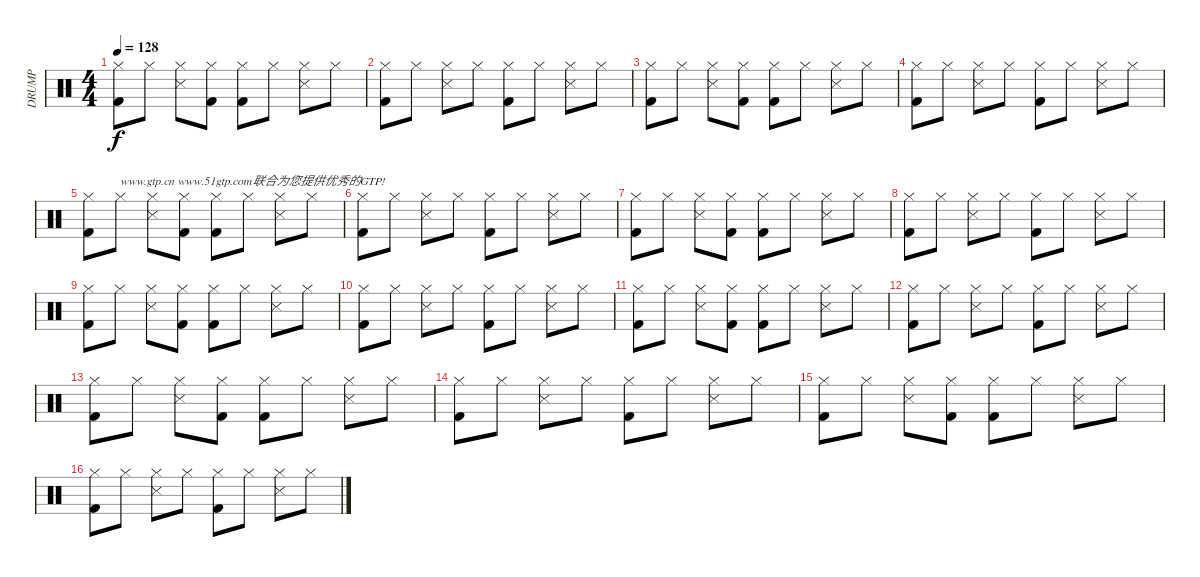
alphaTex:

\track ("DRUMP" "DRUMP") {instrument percussion}
\staff {score}
\articulation defaults
\ts (4 4)
\tempo 128
\clef neutral
\ks c
("Hi-Hat (closed)" "Kick (hit) 2").8{dy f} "Hi-Hat (closed)".8 ("Hi-Hat (closed)" "Snare (side stick) 3").8 ("Hi-Hat (closed)" "Kick (hit) 2").8 ("Hi-Hat (closed)" "Kick (hit) 2").8 "Hi-Hat (closed)".8 ("Hi-Hat (closed)" "Snare (side stick) 3").8 "Hi-Hat (closed)".8 |
("Hi-Hat (closed)" "Kick (hit) 2").8 "Hi-Hat (closed)".8 ("Hi-Hat (closed)" "Snare (side stick) 3").8 "Hi-Hat (closed)".8 ("Hi-Hat (closed)" "Kick (hit) 2").8 "Hi-Hat (closed)".8 ("Hi-Hat (closed)" "Snare (side stick) 3").8 "Hi-Hat (closed)".8 |
("Hi-Hat (closed)" "Kick (hit) 2").8 "Hi-Hat (closed)".8 ("Hi-Hat (closed)" "Snare (side stick) 3").8 ("Hi-Hat (closed)" "Kick (hit) 2").8 ("Hi-Hat (closed)" "Kick (hit) 2").8 "Hi-Hat (closed)".8 ("Hi-Hat (closed)" "Snare (side stick) 3").8 "Hi-Hat (closed)".8 |
("Hi-Hat (closed)" "Kick (hit) 2").8 "Hi-Hat (closed)".8 ("Hi-Hat (closed)" "Snare (side stick) 3").8 "Hi-Hat (closed)".8 ("Hi-Hat (closed)" "Kick (hit) 2").8 "Hi-Hat (closed)".8 ("Hi-Hat (closed)" "Snare (side stick) 3").8 "Hi-Hat (closed)".8 |
("Hi-Hat (closed)" "Kick (hit) 2").8 "Hi-Hat (closed)".8{txt "www.gtp.cn www.51gtp.com联合为您提供优秀的GTP!"} ("Hi-Hat (closed)" "Snare (side stick) 3").8 ("Hi-Hat (closed)" "Kick (hit) 2").8 ("Hi-Hat (closed)" "Kick (hit) 2").8 "Hi-Hat (closed)".8 ("Hi-Hat (closed)" "Snare (side stick) 3").8 "Hi-Hat (closed)".8 |
("Hi-Hat (closed)" "Kick (hit) 2").8 "Hi-Hat (closed)".8 ("Hi-Hat (closed)" "Snare (side stick) 3").8 "Hi-Hat (closed)".8 ("Hi-Hat (closed)" "Kick (hit) 2").8 "Hi-Hat (closed)".8 ("Hi-Hat (closed)" "Snare (side stick) 3").8 "Hi-Hat (closed)".8 |
("Hi-Hat (closed)" "Kick (hit) 2").8 "Hi-Hat (closed)".8 ("Hi-Hat (closed)" "Snare (side stick) 3").8 ("Hi-Hat (closed)" "Kick (hit) 2").8 ("Hi-Hat (closed)" "Kick (hit) 2").8 "Hi-Hat (closed)".8 ("Hi-Hat (closed)" "Snare (side stick) 3").8 "Hi-Hat (closed)".8 |
("Hi-Hat (closed)" "Kick (hit) 2").8 "Hi-Hat (closed)".8 ("Hi-Hat (closed)" "Snare (side stick) 3").8 "Hi-Hat (closed)".8 ("Hi-Hat (closed)" "Kick (hit) 2").8 "Hi-Hat (closed)".8 ("Hi-Hat (closed)" "Snare (side stick) 3").8 "Hi-Hat (closed)".8 |
("Hi-Hat (closed)" "Kick (hit) 2").8 "Hi-Hat (closed)".8 ("Hi-Hat (closed)" "Snare (side stick) 3").8 ("Hi-Hat (closed)" "Kick (hit) 2").8 ("Hi-Hat (closed)" "Kick (hit) 2").8 "Hi-Hat (closed)".8 ("Hi-Hat (closed)" "Snare (side stick) 3").8 "Hi-Hat (closed)".8 |
("Hi-Hat (closed)" "Kick (hit) 2").8 "Hi-Hat (closed)".8 ("Hi-Hat (closed)" "Snare (side stick) 3").8 "Hi-Hat (closed)".8 ("Hi-Hat (closed)" "Kick (hit) 2").8 "Hi-Hat (closed)".8 ("Hi-Hat (closed)" "Snare (side stick) 3").8 "Hi-Hat (closed)".8 |
("Hi-Hat (closed)" "Kick (hit) 2").8 "Hi-Hat (closed)".8 ("Hi-Hat (closed)" "Snare (side stick) 3").8 ("Hi-Hat (closed)" "Kick (hit) 2").8 ("Hi-Hat (closed)" "Kick (hit) 2").8 "Hi-Hat (closed)".8 ("Hi-Hat (closed)" "Snare (side stick) 3").8 "Hi-Hat (closed)".8 |
("Hi-Hat (closed)" "Kick (hit) 2").8 "Hi-Hat (closed)".8 ("Hi-Hat (closed)" "Snare (side stick) 3").8 "Hi-Hat (closed)".8 ("Hi-Hat (closed)" "Kick (hit) 2").8 "Hi-Hat (closed)".8 ("Hi-Hat (closed)" "Snare (side stick) 3").8 "Hi-Hat (closed)".8 |
("Hi-Hat (closed)" "Kick (hit) 2").8 "Hi-Hat (closed)".8 ("Hi-Hat (closed)" "Snare (side stick) 3").8 ("Hi-Hat (closed)" "Kick (hit) 2").8 ("Hi-Hat (closed)" "Kick (hit) 2").8 "Hi-Hat (closed)".8 ("Hi-Hat (closed)" "Snare (side stick) 3").8 "Hi-Hat (closed)".8 |
("Hi-Hat (closed)" "Kick (hit) 2").8 "Hi-Hat (closed)".8 ("Hi-Hat (closed)" "Snare (side stick) 3").8 "Hi-Hat (closed)".8 ("Hi-Hat (closed)" "Kick (hit) 2").8 "Hi-Hat (closed)".8 ("Hi-Hat (closed)" "Snare (side stick) 3").8 "Hi-Hat (closed)".8 |
("Hi-Hat (closed)" "Kick (hit) 2").8 "Hi-Hat (closed)".8 ("Hi-Hat (closed)" "Snare (side stick) 3").8 ("Hi-Hat (closed)" "Kick (hit) 2").8 ("Hi-Hat (closed)" "Kick (hit) 2").8 "Hi-Hat (closed)".8 ("Hi-Hat (closed)" "Snare (side stick) 3").8 "Hi-Hat (closed)".8 |
("Hi-Hat (closed)" "Kick (hit) 2").8 "Hi-Hat (closed)".8 ("Hi-Hat (closed)" "Snare (side stick) 3").8 "Hi-Hat (closed)".8 ("Hi-Hat (closed)" "Kick (hit) 2").8 "Hi-Hat (closed)".8 ("Hi-Hat (closed)" "Snare (side stick) 3").8 "Hi-Hat (closed)".8
